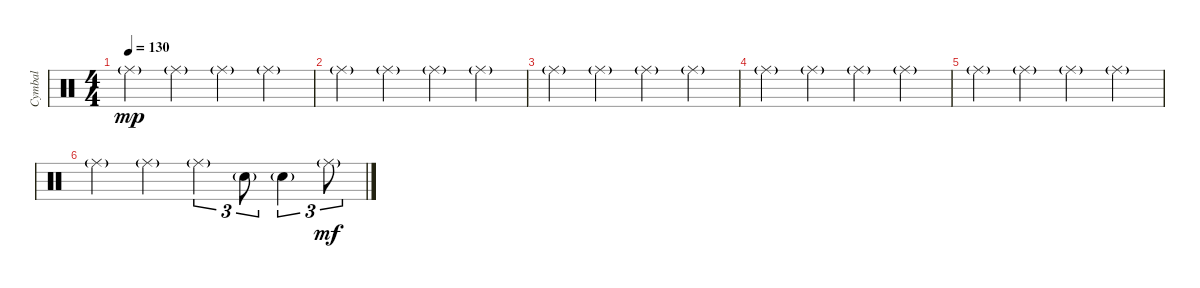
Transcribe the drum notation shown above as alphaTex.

\track ("Cymbal" "Cymbal") {instrument percussion}
\staff {score}
\articulation defaults
\ts (4 4)
\tempo 130
\clef neutral
\ks c "Ride (middle)"{g}.4{dy mp} "Ride (middle)"{g}.4 "Ride (middle)"{g}.4 "Ride (middle)"{g}.4
|
"Ride (middle)"{g}.4 "Ride (middle)"{g}.4 "Ride (middle)"{g}.4 "Ride (middle)"{g}.4 |
"Ride (middle)"{g}.4 "Ride (middle)"{g}.4 "Ride (middle)"{g}.4 "Ride (middle)"{g}.4 |
"Ride (middle)"{g}.4 "Ride (middle)"{g}.4 "Ride (middle)"{g}.4 "Ride (middle)"{g}.4 |
"Ride (middle)"{g}.4 "Ride (middle)"{g}.4 "Ride (middle)"{g}.4 "Ride (middle)"{g}.4 |
"Ride (middle)"{g}.4 "Ride (middle)"{g}.4 "Ride (middle)"{g}.4{tu (3 2)} "Electric Snare (hit)"{g}.8{tu (3 2)} "Electric Snare (hit)"{g}.4{tu (3 2)} "Ride (middle)"{g}.8{tu (3 2) dy mf}
